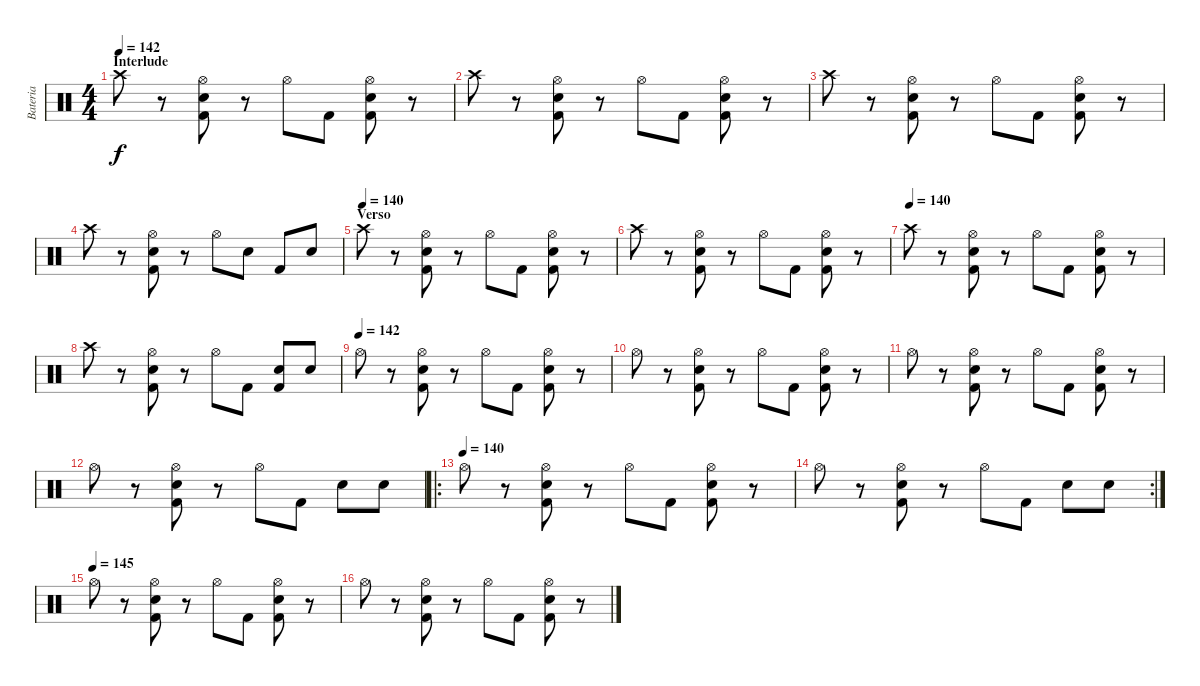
\track ("Bateria" "Bateria") {instrument percussion}
\staff {score}
\articulation defaults
\ts (4 4)
\section ("" "Interlude")
\tempo 142
\clef neutral
\ks c "Crash high (hit)".8{dy f}
r.8 ("Hi-Hat (open)" "Electric Snare (hit)" "Kick (hit) 2").8 r.8 "Hi-Hat (open)".8 "Kick (hit) 2".8 ("Hi-Hat (open)" "Electric Snare (hit)" "Kick (hit) 2").8 r.8 |
"Crash high (hit)".8 r.8 ("Hi-Hat (open)" "Electric Snare (hit)" "Kick (hit) 2").8 r.8 "Hi-Hat (open)".8 "Kick (hit) 2".8 ("Hi-Hat (open)" "Electric Snare (hit)" "Kick (hit) 2").8 r.8 |
"Crash high (hit)".8 r.8 ("Hi-Hat (open)" "Electric Snare (hit)" "Kick (hit) 2").8 r.8 "Hi-Hat (open)".8 "Kick (hit) 2".8 ("Hi-Hat (open)" "Electric Snare (hit)" "Kick (hit) 2").8 r.8 |
"Crash high (hit)".8 r.8 ("Hi-Hat (open)" "Electric Snare (hit)" "Kick (hit) 2").8 r.8 "Hi-Hat (open)".8 "Electric Snare (hit)".8 "Kick (hit) 2".8 "Electric Snare (hit)".8 |
\section ("" "Verso")
\tempo (140)
"Crash high (hit)".8 r.8 ("Hi-Hat (open)" "Electric Snare (hit)" "Kick (hit) 2").8 r.8 "Hi-Hat (open)".8 "Kick (hit) 2".8 ("Hi-Hat (open)" "Electric Snare (hit)" "Kick (hit) 2").8 r.8 |
"Crash high (hit)".8 r.8 ("Hi-Hat (open)" "Electric Snare (hit)" "Kick (hit) 2").8 r.8 "Hi-Hat (open)".8 "Kick (hit) 2".8 ("Hi-Hat (open)" "Electric Snare (hit)" "Kick (hit) 2").8 r.8 |
\tempo (140)
"Crash high (hit)".8 r.8 ("Hi-Hat (open)" "Electric Snare (hit)" "Kick (hit) 2").8 r.8 "Hi-Hat (open)".8 "Kick (hit) 2".8 ("Hi-Hat (open)" "Electric Snare (hit)" "Kick (hit) 2").8 r.8 |
"Crash high (hit)".8 r.8 ("Hi-Hat (open)" "Electric Snare (hit)" "Kick (hit) 2").8 r.8 "Hi-Hat (open)".8 "Kick (hit) 2".8 ("Electric Snare (hit)" "Kick (hit) 2").8 "Electric Snare (hit)".8 |
\tempo 145
\tempo (142)
"Hi-Hat (open)".8 r.8 ("Hi-Hat (open)" "Electric Snare (hit)" "Kick (hit) 2").8 r.8 "Hi-Hat (open)".8 "Kick (hit) 2".8 ("Hi-Hat (open)" "Electric Snare (hit)" "Kick (hit) 2").8 r.8 |
"Hi-Hat (open)".8 r.8 ("Hi-Hat (open)" "Electric Snare (hit)" "Kick (hit) 2").8 r.8 "Hi-Hat (open)".8 "Kick (hit) 2".8 ("Hi-Hat (open)" "Electric Snare (hit)" "Kick (hit) 2").8 r.8 |
"Hi-Hat (open)".8 r.8 ("Hi-Hat (open)" "Electric Snare (hit)" "Kick (hit) 2").8 r.8 "Hi-Hat (open)".8 "Kick (hit) 2".8 ("Hi-Hat (open)" "Electric Snare (hit)" "Kick (hit) 2").8 r.8 |
"Hi-Hat (open)".8 r.8 ("Hi-Hat (open)" "Electric Snare (hit)" "Kick (hit) 2").8 r.8 "Hi-Hat (open)".8 "Kick (hit) 2".8 "Electric Snare (hit)".8 "Electric Snare (hit)".8 |
\ro
\tempo (140)
"Hi-Hat (open)".8 r.8 ("Hi-Hat (open)" "Electric Snare (hit)" "Kick (hit) 2").8 r.8 "Hi-Hat (open)".8 "Kick (hit) 2".8 ("Hi-Hat (open)" "Electric Snare (hit)" "Kick (hit) 2").8 r.8 |
\rc 2 "Hi-Hat (open)".8
r.8 ("Hi-Hat (open)" "Electric Snare (hit)" "Kick (hit) 2").8 r.8 "Hi-Hat (open)".8 "Kick (hit) 2".8 "Electric Snare (hit)".8 "Electric Snare (hit)".8 |
\tempo (145)
"Hi-Hat (open)".8 r.8 ("Hi-Hat (open)" "Electric Snare (hit)" "Kick (hit) 2").8 r.8 "Hi-Hat (open)".8 "Kick (hit) 2".8 ("Hi-Hat (open)" "Electric Snare (hit)" "Kick (hit) 2").8 r.8 |
"Hi-Hat (open)".8 r.8 ("Hi-Hat (open)" "Electric Snare (hit)" "Kick (hit) 2").8 r.8 "Hi-Hat (open)".8 "Kick (hit) 2".8 ("Hi-Hat (open)" "Electric Snare (hit)" "Kick (hit) 2").8 r.8
